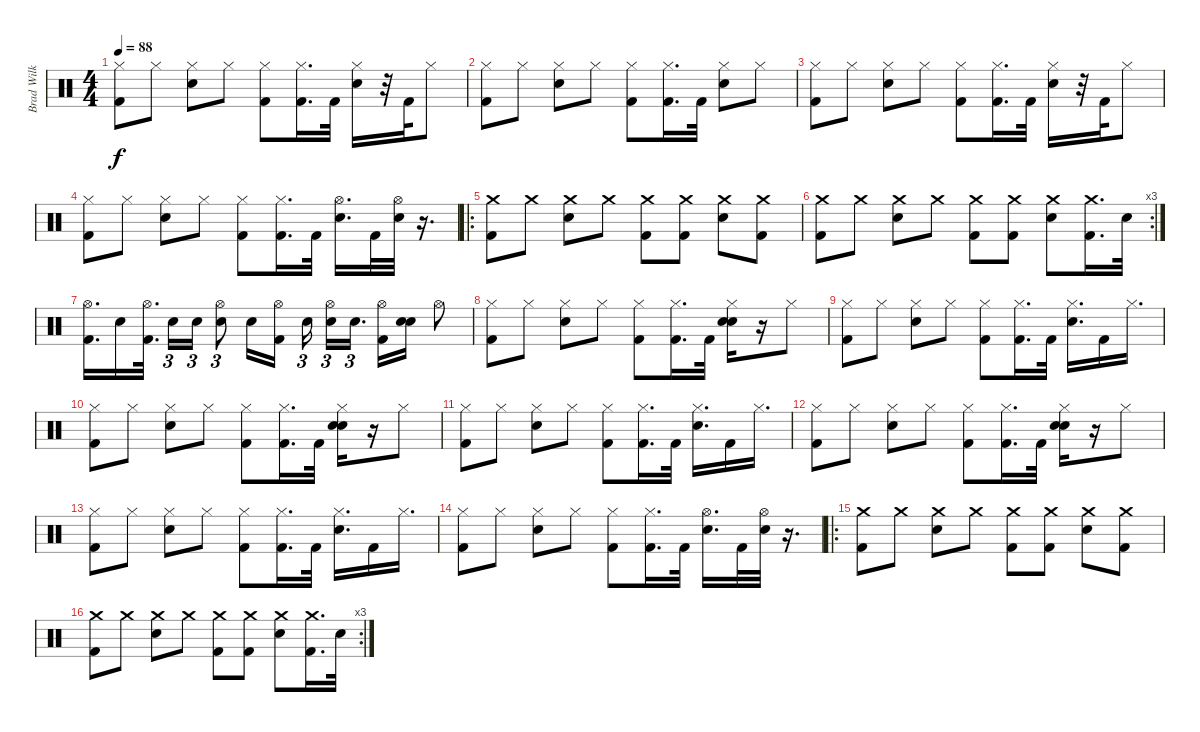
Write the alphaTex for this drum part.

\track ("Brad Wilk" "Brad Wilk") {instrument percussion}
\staff {score}
\articulation defaults
\ts (4 4)
\tempo 88
\clef neutral
\ks c
("Hi-Hat (closed)" "Kick (hit) 2").8{dy f} "Hi-Hat (closed)".8 ("Hi-Hat (closed)" "Snare (hit) 2").8 "Hi-Hat (closed)".8 ("Hi-Hat (closed)" "Kick (hit) 2").8 ("Hi-Hat (closed)" "Kick (hit) 2").16{d} "Kick (hit) 2".32 ("Hi-Hat (closed)" "Snare (hit) 2").16 r.32 "Kick (hit) 2".32 "Hi-Hat (closed)".8 |
("Hi-Hat (closed)" "Kick (hit) 2").8 "Hi-Hat (closed)".8 ("Hi-Hat (closed)" "Snare (hit) 2").8 "Hi-Hat (closed)".8 ("Hi-Hat (closed)" "Kick (hit) 2").8 ("Hi-Hat (closed)" "Kick (hit) 2").16{d} "Kick (hit) 2".32 ("Hi-Hat (closed)" "Snare (hit) 2").8 "Hi-Hat (closed)".8 |
("Hi-Hat (closed)" "Kick (hit) 2").8 "Hi-Hat (closed)".8 ("Hi-Hat (closed)" "Snare (hit) 2").8 "Hi-Hat (closed)".8 ("Hi-Hat (closed)" "Kick (hit) 2").8 ("Hi-Hat (closed)" "Kick (hit) 2").16{d} "Kick (hit) 2".32 ("Hi-Hat (closed)" "Snare (hit) 2").16 r.32 "Kick (hit) 2".32 "Hi-Hat (closed)".8 |
("Hi-Hat (closed)" "Kick (hit) 2").8 "Hi-Hat (closed)".8 ("Hi-Hat (closed)" "Snare (hit) 2").8 "Hi-Hat (closed)".8 ("Hi-Hat (closed)" "Kick (hit) 2").8 ("Hi-Hat (closed)" "Kick (hit) 2").16{d} "Kick (hit) 2".32 ("Hi-Hat (open)" "Snare (hit) 2").16{d} "Kick (hit) 2".32 ("Hi-Hat (open)" "Snare (hit) 2").32 r.16{d} |
\ro
("Crash medium (hit)" "Kick (hit) 2").8 "Crash medium (hit)".8 ("Crash medium (hit)" "Snare (hit) 2").8 "Crash medium (hit)".8 ("Crash medium (hit)" "Kick (hit) 2").8 ("Crash medium (hit)" "Kick (hit) 2").8 ("Crash medium (hit)" "Snare (hit) 2").8 ("Crash medium (hit)" "Kick (hit) 2").8 |
\rc 3
("Crash medium (hit)" "Kick (hit) 2").8 "Crash medium (hit)".8 ("Crash medium (hit)" "Snare (hit) 2").8 "Crash medium (hit)".8 ("Crash medium (hit)" "Kick (hit) 2").8 ("Crash medium (hit)" "Kick (hit) 2").8 ("Crash medium (hit)" "Snare (hit) 2").8 ("Crash medium (hit)" "Kick (hit) 2").16{d} "Snare (hit) 2".32 |
("Hi-Hat (open)" "Kick (hit) 2").16{d} "Snare (hit) 2".16 ("Hi-Hat (open)" "Kick (hit) 2").32{d beam splitsecondary} "Snare (hit) 2".16{tu (3 2)} "Snare (hit) 2".16{tu (3 2)} ("Hi-Hat (open)" "Snare (hit) 2").8{tu (3 2)} "Snare (hit) 2".16 ("Hi-Hat (open)" "Kick (hit) 2").16{beam splitsecondary} "Snare (hit) 2".16{tu (3 2)} ("Hi-Hat (open)" "Snare (hit) 2").16{tu (3 2)} "Snare (hit) 2".16{d tu (3 2) beam splitsecondary} ("Hi-Hat (open)" "Kick (hit) 2").16 ("Snare (hit) 2" "Snare (hit) 2").16 "Hi-Hat (open)".8 |
("Hi-Hat (closed)" "Kick (hit) 2").8 "Hi-Hat (closed)".8 ("Hi-Hat (closed)" "Snare (hit) 2").8 "Hi-Hat (closed)".8 ("Hi-Hat (closed)" "Kick (hit) 2").8 ("Hi-Hat (closed)" "Kick (hit) 2").16{d} "Kick (hit) 2".32 ("Hi-Hat (closed)" "Snare (hit) 2" "Snare (hit) 2").16 r.16 "Hi-Hat (closed)".8 |
("Hi-Hat (closed)" "Kick (hit) 2").8 "Hi-Hat (closed)".8 ("Hi-Hat (closed)" "Snare (hit) 2").8 "Hi-Hat (closed)".8 ("Hi-Hat (closed)" "Kick (hit) 2").8 ("Hi-Hat (closed)" "Kick (hit) 2").16{d} "Kick (hit) 2".32 ("Hi-Hat (closed)" "Snare (hit) 2").16{d} "Kick (hit) 2".16 "Hi-Hat (closed)".16{d} |
("Hi-Hat (closed)" "Kick (hit) 2").8 "Hi-Hat (closed)".8 ("Hi-Hat (closed)" "Snare (hit) 2").8 "Hi-Hat (closed)".8 ("Hi-Hat (closed)" "Kick (hit) 2").8 ("Hi-Hat (closed)" "Kick (hit) 2").16{d} "Kick (hit) 2".32 ("Hi-Hat (closed)" "Snare (hit) 2" "Snare (hit) 2").16 r.16 "Hi-Hat (closed)".8 |
("Hi-Hat (closed)" "Kick (hit) 2").8 "Hi-Hat (closed)".8 ("Hi-Hat (closed)" "Snare (hit) 2").8 "Hi-Hat (closed)".8 ("Hi-Hat (closed)" "Kick (hit) 2").8 ("Hi-Hat (closed)" "Kick (hit) 2").16{d} "Kick (hit) 2".32 ("Hi-Hat (closed)" "Snare (hit) 2").16{d} "Kick (hit) 2".16 "Hi-Hat (closed)".16{d} |
("Hi-Hat (closed)" "Kick (hit) 2").8 "Hi-Hat (closed)".8 ("Hi-Hat (closed)" "Snare (hit) 2").8 "Hi-Hat (closed)".8 ("Hi-Hat (closed)" "Kick (hit) 2").8 ("Hi-Hat (closed)" "Kick (hit) 2").16{d} "Kick (hit) 2".32 ("Hi-Hat (closed)" "Snare (hit) 2" "Snare (hit) 2").16 r.16 "Hi-Hat (closed)".8 |
("Hi-Hat (closed)" "Kick (hit) 2").8 "Hi-Hat (closed)".8 ("Hi-Hat (closed)" "Snare (hit) 2").8 "Hi-Hat (closed)".8 ("Hi-Hat (closed)" "Kick (hit) 2").8 ("Hi-Hat (closed)" "Kick (hit) 2").16{d} "Kick (hit) 2".32 ("Hi-Hat (closed)" "Snare (hit) 2").16{d} "Kick (hit) 2".16 "Hi-Hat (closed)".16{d} |
("Hi-Hat (closed)" "Kick (hit) 2").8 "Hi-Hat (closed)".8 ("Hi-Hat (closed)" "Snare (hit) 2").8 "Hi-Hat (closed)".8 ("Hi-Hat (closed)" "Kick (hit) 2").8 ("Hi-Hat (closed)" "Kick (hit) 2").16{d} "Kick (hit) 2".32 ("Hi-Hat (open)" "Snare (hit) 2").16{d} "Kick (hit) 2".32 ("Hi-Hat (open)" "Snare (hit) 2").32 r.16{d} |
\ro
("Crash medium (hit)" "Kick (hit) 2").8 "Crash medium (hit)".8 ("Crash medium (hit)" "Snare (hit) 2").8 "Crash medium (hit)".8 ("Crash medium (hit)" "Kick (hit) 2").8 ("Crash medium (hit)" "Kick (hit) 2").8 ("Crash medium (hit)" "Snare (hit) 2").8 ("Crash medium (hit)" "Kick (hit) 2").8 |
\rc 3
("Crash medium (hit)" "Kick (hit) 2").8 "Crash medium (hit)".8 ("Crash medium (hit)" "Snare (hit) 2").8 "Crash medium (hit)".8 ("Crash medium (hit)" "Kick (hit) 2").8 ("Crash medium (hit)" "Kick (hit) 2").8 ("Crash medium (hit)" "Snare (hit) 2").8 ("Crash medium (hit)" "Kick (hit) 2").16{d} "Snare (hit) 2".32
